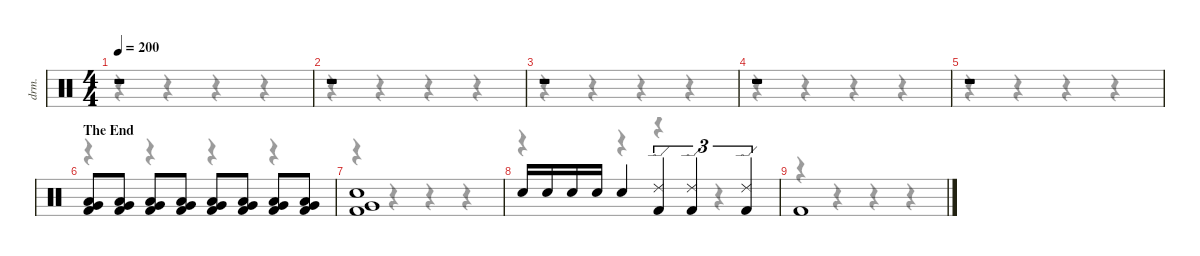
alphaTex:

\defaultSystemsLayout 4
\hideDynamics
\bracketExtendMode nobrackets
\otherSystemsTrackNameOrientation horizontal
\track ("David Mackintosh (Drums)" "drm.") {instrument percussion}
\staff {score}
\articulation defaults
\voice
\ts (4 4)
\tempo 200
\clef neutral
\ks c
r.1{dy f} |
r.1 |
r.1 |
r.1 |
r.1 |
\section ("" "The End")
("Kick (hit) 2" "Very Low Tom (hit)" "Low Floor Tom (hit)").8 ("Kick (hit) 2" "Very Low Tom (hit)" "Low Floor Tom (hit)").8 ("Kick (hit) 2" "Very Low Tom (hit)" "Low Floor Tom (hit)").8 ("Kick (hit) 2" "Very Low Tom (hit)" "Low Floor Tom (hit)").8 ("Kick (hit) 2" "Very Low Tom (hit)" "Low Floor Tom (hit)").8 ("Kick (hit) 2" "Very Low Tom (hit)" "Low Floor Tom (hit)").8 ("Kick (hit) 2" "Very Low Tom (hit)" "Low Floor Tom (hit)").8 ("Kick (hit) 2" "Very Low Tom (hit)" "Low Floor Tom (hit)").8 |
("Kick (hit) 2" "Snare (hit) 2" "Very Low Tom (hit)").1 |
"Snare (hit) 2".16 "Snare (hit) 2".16 "Snare (hit) 2".16 "Snare (hit) 2".16 "Snare (hit) 2".4 ("Kick (hit) 2" "Ride (edge) 2").4{tu (3 2)} ("Kick (hit) 2" "Ride (edge) 2").4{tu (3 2)} ("Kick (hit) 2" "Ride (edge) 2").4{tu (3 2)} |
"Kick (hit) 2".1
\voice
\clef neutral
\ottava regular
\simile none
\ks c
r.4{dy mf} r.4 r.4 r.4 |
r.4 r.4 r.4 r.4 |
r.4 r.4 r.4 r.4 |
r.4 r.4 r.4 r.4 |
r.4 r.4 r.4 r.4 |
r.4 r.4 r.4 r.4 |
r.4 r.4 r.4 r.4 |
r.4 r.4 r.4 r.4 |
r.4 r.4 r.4 r.4
